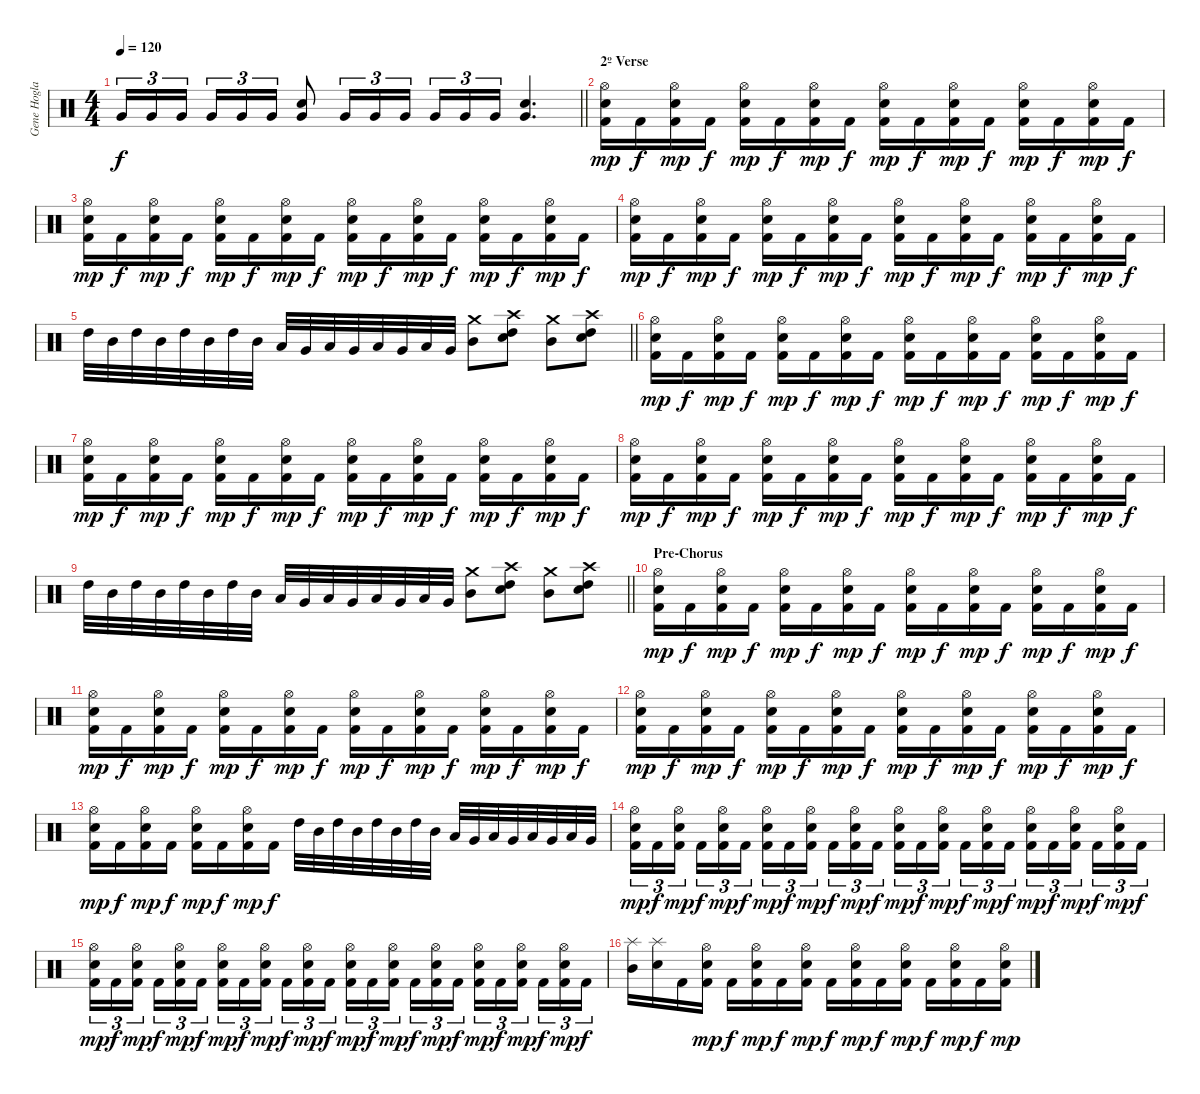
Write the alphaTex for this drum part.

\track ("Gene Hoglan" "Gene Hogla") {instrument percussion}
\staff {score}
\articulation defaults
\ts (4 4)
\tempo 120
\clef neutral
\barLineRight lightlight
\ks c "Very Low Tom (hit)".16{tu (3 2) dy f} "Very Low Tom (hit)".16{tu (3 2)} "Very Low Tom (hit)".16{tu (3 2) beam splitsecondary} "Very Low Tom (hit)".16{tu (3 2)} "Very Low Tom (hit)".16{tu (3 2)} "Very Low Tom (hit)".16{tu (3 2)}
("Very Low Tom (hit)" "Electric Snare (hit)").8 "Very Low Tom (hit)".16{tu (3 2)} "Very Low Tom (hit)".16{tu (3 2)} "Very Low Tom (hit)".16{tu (3 2)} "Very Low Tom (hit)".16{tu (3 2)} "Very Low Tom (hit)".16{tu (3 2)} "Very Low Tom (hit)".16{tu (3 2)} ("Very Low Tom (hit)" "Electric Snare (hit)").4{d} |
\section ("" "2º Verse")
("Hi-Hat (open)" "Snare (hit) 2" "Kick (hit) 2").16{dy mp} "Kick (hit) 2".16{dy f} ("Hi-Hat (open)" "Snare (hit) 2" "Kick (hit) 2").16{dy mp} "Kick (hit) 2".16{dy f} ("Hi-Hat (open)" "Snare (hit) 2" "Kick (hit) 2").16{dy mp} "Kick (hit) 2".16{dy f} ("Hi-Hat (open)" "Snare (hit) 2" "Kick (hit) 2").16{dy mp} "Kick (hit) 2".16{dy f} ("Hi-Hat (open)" "Snare (hit) 2" "Kick (hit) 2").16{dy mp} "Kick (hit) 2".16{dy f} ("Hi-Hat (open)" "Snare (hit) 2" "Kick (hit) 2").16{dy mp} "Kick (hit) 2".16{dy f} ("Hi-Hat (open)" "Snare (hit) 2" "Kick (hit) 2").16{dy mp} "Kick (hit) 2".16{dy f} ("Hi-Hat (open)" "Snare (hit) 2" "Kick (hit) 2").16{dy mp} "Kick (hit) 2".16{dy f} |
("Hi-Hat (open)" "Snare (hit) 2" "Kick (hit) 2").16{dy mp} "Kick (hit) 2".16{dy f} ("Hi-Hat (open)" "Snare (hit) 2" "Kick (hit) 2").16{dy mp} "Kick (hit) 2".16{dy f} ("Hi-Hat (open)" "Snare (hit) 2" "Kick (hit) 2").16{dy mp} "Kick (hit) 2".16{dy f} ("Hi-Hat (open)" "Snare (hit) 2" "Kick (hit) 2").16{dy mp} "Kick (hit) 2".16{dy f} ("Hi-Hat (open)" "Snare (hit) 2" "Kick (hit) 2").16{dy mp} "Kick (hit) 2".16{dy f} ("Hi-Hat (open)" "Snare (hit) 2" "Kick (hit) 2").16{dy mp} "Kick (hit) 2".16{dy f} ("Hi-Hat (open)" "Snare (hit) 2" "Kick (hit) 2").16{dy mp} "Kick (hit) 2".16{dy f} ("Hi-Hat (open)" "Snare (hit) 2" "Kick (hit) 2").16{dy mp} "Kick (hit) 2".16{dy f} |
("Hi-Hat (open)" "Snare (hit) 2" "Kick (hit) 2").16{dy mp} "Kick (hit) 2".16{dy f} ("Hi-Hat (open)" "Snare (hit) 2" "Kick (hit) 2").16{dy mp} "Kick (hit) 2".16{dy f} ("Hi-Hat (open)" "Snare (hit) 2" "Kick (hit) 2").16{dy mp} "Kick (hit) 2".16{dy f} ("Hi-Hat (open)" "Snare (hit) 2" "Kick (hit) 2").16{dy mp} "Kick (hit) 2".16{dy f} ("Hi-Hat (open)" "Snare (hit) 2" "Kick (hit) 2").16{dy mp} "Kick (hit) 2".16{dy f} ("Hi-Hat (open)" "Snare (hit) 2" "Kick (hit) 2").16{dy mp} "Kick (hit) 2".16{dy f} ("Hi-Hat (open)" "Snare (hit) 2" "Kick (hit) 2").16{dy mp} "Kick (hit) 2".16{dy f} ("Hi-Hat (open)" "Snare (hit) 2" "Kick (hit) 2").16{dy mp} "Kick (hit) 2".16{dy f} |
\barLineRight lightlight "High Tom (hit)".32 "Mid Tom (hit)".32 "High Tom (hit)".32 "Mid Tom (hit)".32 "High Tom (hit)".32 "Mid Tom (hit)".32 "High Tom (hit)".32 "Mid Tom (hit)".32 "Low Tom (hit)".32 "Very Low Tom (hit)".32 "Low Tom (hit)".32 "Very Low Tom (hit)".32 "Low Tom (hit)".32 "Very Low Tom (hit)".32 "Low Tom (hit)".32 "Very Low Tom (hit)".32
("Mid Tom (hit)" "Crash medium (hit)").8 ("High Tom (hit)" "Crash high (hit)" "Electric Snare (hit)").8 ("Mid Tom (hit)" "Crash medium (hit)").8 ("High Tom (hit)" "Crash high (hit)" "Electric Snare (hit)").8 |
("Hi-Hat (open)" "Snare (hit) 2" "Kick (hit) 2").16{dy mp} "Kick (hit) 2".16{dy f} ("Hi-Hat (open)" "Snare (hit) 2" "Kick (hit) 2").16{dy mp} "Kick (hit) 2".16{dy f} ("Hi-Hat (open)" "Snare (hit) 2" "Kick (hit) 2").16{dy mp} "Kick (hit) 2".16{dy f} ("Hi-Hat (open)" "Snare (hit) 2" "Kick (hit) 2").16{dy mp} "Kick (hit) 2".16{dy f} ("Hi-Hat (open)" "Snare (hit) 2" "Kick (hit) 2").16{dy mp} "Kick (hit) 2".16{dy f} ("Hi-Hat (open)" "Snare (hit) 2" "Kick (hit) 2").16{dy mp} "Kick (hit) 2".16{dy f} ("Hi-Hat (open)" "Snare (hit) 2" "Kick (hit) 2").16{dy mp} "Kick (hit) 2".16{dy f} ("Hi-Hat (open)" "Snare (hit) 2" "Kick (hit) 2").16{dy mp} "Kick (hit) 2".16{dy f} |
("Hi-Hat (open)" "Snare (hit) 2" "Kick (hit) 2").16{dy mp} "Kick (hit) 2".16{dy f} ("Hi-Hat (open)" "Snare (hit) 2" "Kick (hit) 2").16{dy mp} "Kick (hit) 2".16{dy f} ("Hi-Hat (open)" "Snare (hit) 2" "Kick (hit) 2").16{dy mp} "Kick (hit) 2".16{dy f} ("Hi-Hat (open)" "Snare (hit) 2" "Kick (hit) 2").16{dy mp} "Kick (hit) 2".16{dy f} ("Hi-Hat (open)" "Snare (hit) 2" "Kick (hit) 2").16{dy mp} "Kick (hit) 2".16{dy f} ("Hi-Hat (open)" "Snare (hit) 2" "Kick (hit) 2").16{dy mp} "Kick (hit) 2".16{dy f} ("Hi-Hat (open)" "Snare (hit) 2" "Kick (hit) 2").16{dy mp} "Kick (hit) 2".16{dy f} ("Hi-Hat (open)" "Snare (hit) 2" "Kick (hit) 2").16{dy mp} "Kick (hit) 2".16{dy f} |
("Hi-Hat (open)" "Snare (hit) 2" "Kick (hit) 2").16{dy mp} "Kick (hit) 2".16{dy f} ("Hi-Hat (open)" "Snare (hit) 2" "Kick (hit) 2").16{dy mp} "Kick (hit) 2".16{dy f} ("Hi-Hat (open)" "Snare (hit) 2" "Kick (hit) 2").16{dy mp} "Kick (hit) 2".16{dy f} ("Hi-Hat (open)" "Snare (hit) 2" "Kick (hit) 2").16{dy mp} "Kick (hit) 2".16{dy f} ("Hi-Hat (open)" "Snare (hit) 2" "Kick (hit) 2").16{dy mp} "Kick (hit) 2".16{dy f} ("Hi-Hat (open)" "Snare (hit) 2" "Kick (hit) 2").16{dy mp} "Kick (hit) 2".16{dy f} ("Hi-Hat (open)" "Snare (hit) 2" "Kick (hit) 2").16{dy mp} "Kick (hit) 2".16{dy f} ("Hi-Hat (open)" "Snare (hit) 2" "Kick (hit) 2").16{dy mp} "Kick (hit) 2".16{dy f} |
\barLineRight lightlight "High Tom (hit)".32 "Mid Tom (hit)".32 "High Tom (hit)".32 "Mid Tom (hit)".32 "High Tom (hit)".32 "Mid Tom (hit)".32 "High Tom (hit)".32 "Mid Tom (hit)".32 "Low Tom (hit)".32 "Very Low Tom (hit)".32 "Low Tom (hit)".32 "Very Low Tom (hit)".32 "Low Tom (hit)".32 "Very Low Tom (hit)".32 "Low Tom (hit)".32 "Very Low Tom (hit)".32
("Mid Tom (hit)" "Crash medium (hit)").8 ("High Tom (hit)" "Crash high (hit)" "Electric Snare (hit)").8 ("Mid Tom (hit)" "Crash medium (hit)").8 ("High Tom (hit)" "Crash high (hit)" "Electric Snare (hit)").8 |
\section ("" "Pre-Chorus")
("Hi-Hat (open)" "Snare (hit) 2" "Kick (hit) 2").16{dy mp} "Kick (hit) 2".16{dy f} ("Hi-Hat (open)" "Snare (hit) 2" "Kick (hit) 2").16{dy mp} "Kick (hit) 2".16{dy f} ("Hi-Hat (open)" "Snare (hit) 2" "Kick (hit) 2").16{dy mp} "Kick (hit) 2".16{dy f} ("Hi-Hat (open)" "Snare (hit) 2" "Kick (hit) 2").16{dy mp} "Kick (hit) 2".16{dy f} ("Hi-Hat (open)" "Snare (hit) 2" "Kick (hit) 2").16{dy mp} "Kick (hit) 2".16{dy f} ("Hi-Hat (open)" "Snare (hit) 2" "Kick (hit) 2").16{dy mp} "Kick (hit) 2".16{dy f} ("Hi-Hat (open)" "Snare (hit) 2" "Kick (hit) 2").16{dy mp} "Kick (hit) 2".16{dy f} ("Hi-Hat (open)" "Snare (hit) 2" "Kick (hit) 2").16{dy mp} "Kick (hit) 2".16{dy f} |
("Hi-Hat (open)" "Snare (hit) 2" "Kick (hit) 2").16{dy mp} "Kick (hit) 2".16{dy f} ("Hi-Hat (open)" "Snare (hit) 2" "Kick (hit) 2").16{dy mp} "Kick (hit) 2".16{dy f} ("Hi-Hat (open)" "Snare (hit) 2" "Kick (hit) 2").16{dy mp} "Kick (hit) 2".16{dy f} ("Hi-Hat (open)" "Snare (hit) 2" "Kick (hit) 2").16{dy mp} "Kick (hit) 2".16{dy f} ("Hi-Hat (open)" "Snare (hit) 2" "Kick (hit) 2").16{dy mp} "Kick (hit) 2".16{dy f} ("Hi-Hat (open)" "Snare (hit) 2" "Kick (hit) 2").16{dy mp} "Kick (hit) 2".16{dy f} ("Hi-Hat (open)" "Snare (hit) 2" "Kick (hit) 2").16{dy mp} "Kick (hit) 2".16{dy f} ("Hi-Hat (open)" "Snare (hit) 2" "Kick (hit) 2").16{dy mp} "Kick (hit) 2".16{dy f} |
("Hi-Hat (open)" "Snare (hit) 2" "Kick (hit) 2").16{dy mp} "Kick (hit) 2".16{dy f} ("Hi-Hat (open)" "Snare (hit) 2" "Kick (hit) 2").16{dy mp} "Kick (hit) 2".16{dy f} ("Hi-Hat (open)" "Snare (hit) 2" "Kick (hit) 2").16{dy mp} "Kick (hit) 2".16{dy f} ("Hi-Hat (open)" "Snare (hit) 2" "Kick (hit) 2").16{dy mp} "Kick (hit) 2".16{dy f} ("Hi-Hat (open)" "Snare (hit) 2" "Kick (hit) 2").16{dy mp} "Kick (hit) 2".16{dy f} ("Hi-Hat (open)" "Snare (hit) 2" "Kick (hit) 2").16{dy mp} "Kick (hit) 2".16{dy f} ("Hi-Hat (open)" "Snare (hit) 2" "Kick (hit) 2").16{dy mp} "Kick (hit) 2".16{dy f} ("Hi-Hat (open)" "Snare (hit) 2" "Kick (hit) 2").16{dy mp} "Kick (hit) 2".16{dy f} |
("Hi-Hat (open)" "Snare (hit) 2" "Kick (hit) 2").16{dy mp} "Kick (hit) 2".16{dy f} ("Hi-Hat (open)" "Snare (hit) 2" "Kick (hit) 2").16{dy mp} "Kick (hit) 2".16{dy f} ("Hi-Hat (open)" "Snare (hit) 2" "Kick (hit) 2").16{dy mp} "Kick (hit) 2".16{dy f} ("Hi-Hat (open)" "Snare (hit) 2" "Kick (hit) 2").16{dy mp} "Kick (hit) 2".16{dy f} "High Tom (hit)".32 "Mid Tom (hit)".32 "High Tom (hit)".32 "Mid Tom (hit)".32 "High Tom (hit)".32 "Mid Tom (hit)".32 "High Tom (hit)".32 "Mid Tom (hit)".32 "Low Tom (hit)".32 "Very Low Tom (hit)".32 "Low Tom (hit)".32 "Very Low Tom (hit)".32 "Low Tom (hit)".32 "Very Low Tom (hit)".32 "Low Tom (hit)".32 "Very Low Tom (hit)".32 |
("Hi-Hat (open)" "Snare (hit) 2" "Kick (hit) 2").16{tu (3 2) dy mp} "Kick (hit) 2".16{tu (3 2) dy f} ("Hi-Hat (open)" "Snare (hit) 2" "Kick (hit) 2").16{tu (3 2) dy mp beam splitsecondary} "Kick (hit) 2".16{tu (3 2) dy f} ("Hi-Hat (open)" "Snare (hit) 2" "Kick (hit) 2").16{tu (3 2) dy mp} "Kick (hit) 2".16{tu (3 2) dy f} ("Hi-Hat (open)" "Snare (hit) 2" "Kick (hit) 2").16{tu (3 2) dy mp} "Kick (hit) 2".16{tu (3 2) dy f} ("Hi-Hat (open)" "Snare (hit) 2" "Kick (hit) 2").16{tu (3 2) dy mp beam splitsecondary} "Kick (hit) 2".16{tu (3 2) dy f} ("Hi-Hat (open)" "Snare (hit) 2" "Kick (hit) 2").16{tu (3 2) dy mp} "Kick (hit) 2".16{tu (3 2) dy f} ("Hi-Hat (open)" "Snare (hit) 2" "Kick (hit) 2").16{tu (3 2) dy mp} "Kick (hit) 2".16{tu (3 2) dy f} ("Hi-Hat (open)" "Snare (hit) 2" "Kick (hit) 2").16{tu (3 2) dy mp beam splitsecondary} "Kick (hit) 2".16{tu (3 2) dy f} ("Hi-Hat (open)" "Snare (hit) 2" "Kick (hit) 2").16{tu (3 2) dy mp} "Kick (hit) 2".16{tu (3 2) dy f} ("Hi-Hat (open)" "Snare (hit) 2" "Kick (hit) 2").16{tu (3 2) dy mp} "Kick (hit) 2".16{tu (3 2) dy f} ("Hi-Hat (open)" "Snare (hit) 2" "Kick (hit) 2").16{tu (3 2) dy mp beam splitsecondary} "Kick (hit) 2".16{tu (3 2) dy f} ("Hi-Hat (open)" "Snare (hit) 2" "Kick (hit) 2").16{tu (3 2) dy mp} "Kick (hit) 2".16{tu (3 2) dy f} |
("Hi-Hat (open)" "Snare (hit) 2" "Kick (hit) 2").16{tu (3 2) dy mp} "Kick (hit) 2".16{tu (3 2) dy f} ("Hi-Hat (open)" "Snare (hit) 2" "Kick (hit) 2").16{tu (3 2) dy mp beam splitsecondary} "Kick (hit) 2".16{tu (3 2) dy f} ("Hi-Hat (open)" "Snare (hit) 2" "Kick (hit) 2").16{tu (3 2) dy mp} "Kick (hit) 2".16{tu (3 2) dy f} ("Hi-Hat (open)" "Snare (hit) 2" "Kick (hit) 2").16{tu (3 2) dy mp} "Kick (hit) 2".16{tu (3 2) dy f} ("Hi-Hat (open)" "Snare (hit) 2" "Kick (hit) 2").16{tu (3 2) dy mp beam splitsecondary} "Kick (hit) 2".16{tu (3 2) dy f} ("Hi-Hat (open)" "Snare (hit) 2" "Kick (hit) 2").16{tu (3 2) dy mp} "Kick (hit) 2".16{tu (3 2) dy f} ("Hi-Hat (open)" "Snare (hit) 2" "Kick (hit) 2").16{tu (3 2) dy mp} "Kick (hit) 2".16{tu (3 2) dy f} ("Hi-Hat (open)" "Snare (hit) 2" "Kick (hit) 2").16{tu (3 2) dy mp beam splitsecondary} "Kick (hit) 2".16{tu (3 2) dy f} ("Hi-Hat (open)" "Snare (hit) 2" "Kick (hit) 2").16{tu (3 2) dy mp} "Kick (hit) 2".16{tu (3 2) dy f} ("Hi-Hat (open)" "Snare (hit) 2" "Kick (hit) 2").16{tu (3 2) dy mp} "Kick (hit) 2".16{tu (3 2) dy f} ("Hi-Hat (open)" "Snare (hit) 2" "Kick (hit) 2").16{tu (3 2) dy mp beam splitsecondary} "Kick (hit) 2".16{tu (3 2) dy f} ("Hi-Hat (open)" "Snare (hit) 2" "Kick (hit) 2").16{tu (3 2) dy mp} "Kick (hit) 2".16{tu (3 2) dy f} |
("Splash (hit)" "Mid Tom (hit)").16 ("Electric Snare (hit)" "Splash (hit)").16 "Kick (hit) 2".16 ("Hi-Hat (open)" "Snare (hit) 2" "Kick (hit) 2").16{dy mp} "Kick (hit) 2".16{dy f} ("Hi-Hat (open)" "Snare (hit) 2" "Kick (hit) 2").16{dy mp} "Kick (hit) 2".16{dy f} ("Hi-Hat (open)" "Snare (hit) 2" "Kick (hit) 2").16{dy mp} "Kick (hit) 2".16{dy f} ("Hi-Hat (open)" "Snare (hit) 2" "Kick (hit) 2").16{dy mp} "Kick (hit) 2".16{dy f} ("Hi-Hat (open)" "Snare (hit) 2" "Kick (hit) 2").16{dy mp} "Kick (hit) 2".16{dy f} ("Hi-Hat (open)" "Snare (hit) 2" "Kick (hit) 2").16{dy mp} "Kick (hit) 2".16{dy f} ("Hi-Hat (open)" "Snare (hit) 2" "Kick (hit) 2").16{dy mp}
